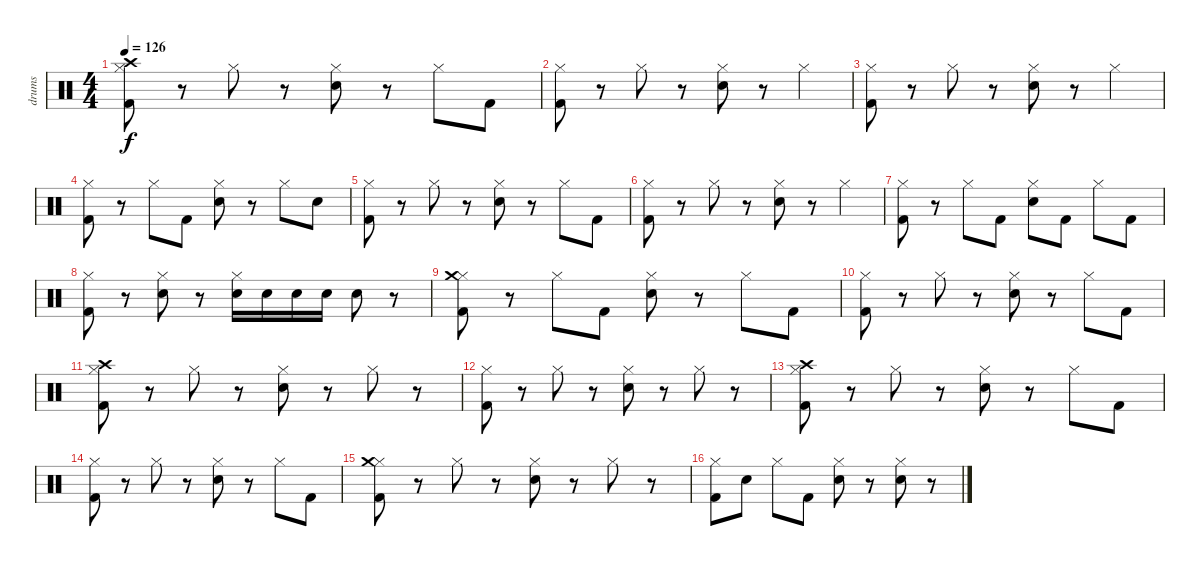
\track ("drums" "drums") {instrument percussion}
\staff {score}
\articulation defaults
\ts (4 4)
\tempo 126
\clef neutral
\ks c
("Kick (hit) 2" "Hi-Hat (closed)" "Crash high (hit)").8{dy f} r.8 "Hi-Hat (closed)".8 r.8 ("Electric Snare (hit)" "Hi-Hat (closed)").8 r.8 "Hi-Hat (closed)".8 "Kick (hit) 2".8 |
("Kick (hit) 2" "Hi-Hat (closed)").8 r.8 "Hi-Hat (closed)".8 r.8 ("Electric Snare (hit)" "Hi-Hat (closed)").8 r.8 "Hi-Hat (closed)".4 |
("Kick (hit) 2" "Hi-Hat (closed)").8 r.8 "Hi-Hat (closed)".8 r.8 ("Electric Snare (hit)" "Hi-Hat (closed)").8 r.8 "Hi-Hat (closed)".4 |
("Kick (hit) 2" "Hi-Hat (closed)").8 r.8 "Hi-Hat (closed)".8 "Kick (hit) 2".8 ("Electric Snare (hit)" "Hi-Hat (closed)").8 r.8 "Hi-Hat (closed)".8 "Electric Snare (hit)".8 |
("Kick (hit) 2" "Hi-Hat (closed)").8 r.8 "Hi-Hat (closed)".8 r.8 ("Electric Snare (hit)" "Hi-Hat (closed)").8 r.8 "Hi-Hat (closed)".8 "Kick (hit) 2".8 |
("Kick (hit) 2" "Hi-Hat (closed)").8 r.8 "Hi-Hat (closed)".8 r.8 ("Electric Snare (hit)" "Hi-Hat (closed)").8 r.8 "Hi-Hat (closed)".4 |
("Kick (hit) 2" "Hi-Hat (closed)").8 r.8 "Hi-Hat (closed)".8 "Kick (hit) 2".8 ("Electric Snare (hit)" "Hi-Hat (closed)").8 "Kick (hit) 2".8 "Hi-Hat (closed)".8 "Kick (hit) 2".8 |
("Kick (hit) 2" "Hi-Hat (closed)").8 r.8 ("Hi-Hat (closed)" "Electric Snare (hit)").8 r.8 ("Hi-Hat (closed)" "Electric Snare (hit)").16 "Electric Snare (hit)".16 "Electric Snare (hit)".16 "Electric Snare (hit)".16 "Electric Snare (hit)".8 r.8 |
("Kick (hit) 2" "Hi-Hat (closed)" "Crash medium (hit)").8 r.8 "Hi-Hat (closed)".8 "Kick (hit) 2".8 ("Electric Snare (hit)" "Hi-Hat (closed)").8 r.8 "Hi-Hat (closed)".8 "Kick (hit) 2".8 |
("Kick (hit) 2" "Hi-Hat (closed)").8 r.8 "Hi-Hat (closed)".8 r.8 ("Electric Snare (hit)" "Hi-Hat (closed)").8 r.8 "Hi-Hat (closed)".8 "Kick (hit) 2".8 |
("Kick (hit) 2" "Hi-Hat (closed)" "Crash high (hit)").8 r.8 "Hi-Hat (closed)".8 r.8 ("Electric Snare (hit)" "Hi-Hat (closed)").8 r.8 "Hi-Hat (closed)".8 r.8 |
("Kick (hit) 2" "Hi-Hat (closed)").8 r.8 "Hi-Hat (closed)".8 r.8 ("Electric Snare (hit)" "Hi-Hat (closed)").8 r.8 "Hi-Hat (closed)".8 r.8 |
("Kick (hit) 2" "Hi-Hat (closed)" "Crash high (hit)").8 r.8 "Hi-Hat (closed)".8 r.8 ("Electric Snare (hit)" "Hi-Hat (closed)").8 r.8 "Hi-Hat (closed)".8 "Kick (hit) 2".8 |
("Kick (hit) 2" "Hi-Hat (closed)").8 r.8 "Hi-Hat (closed)".8 r.8 ("Electric Snare (hit)" "Hi-Hat (closed)").8 r.8 "Hi-Hat (closed)".8 "Kick (hit) 2".8 |
("Kick (hit) 2" "Hi-Hat (closed)" "Crash medium (hit)").8 r.8 "Hi-Hat (closed)".8 r.8 ("Electric Snare (hit)" "Hi-Hat (closed)").8 r.8 "Hi-Hat (closed)".8 r.8 |
("Kick (hit) 2" "Hi-Hat (closed)").8 "Electric Snare (hit)".8 "Hi-Hat (closed)".8 "Kick (hit) 2".8 ("Electric Snare (hit)" "Hi-Hat (closed)").8 r.8 ("Electric Snare (hit)" "Hi-Hat (closed)").8 r.8
